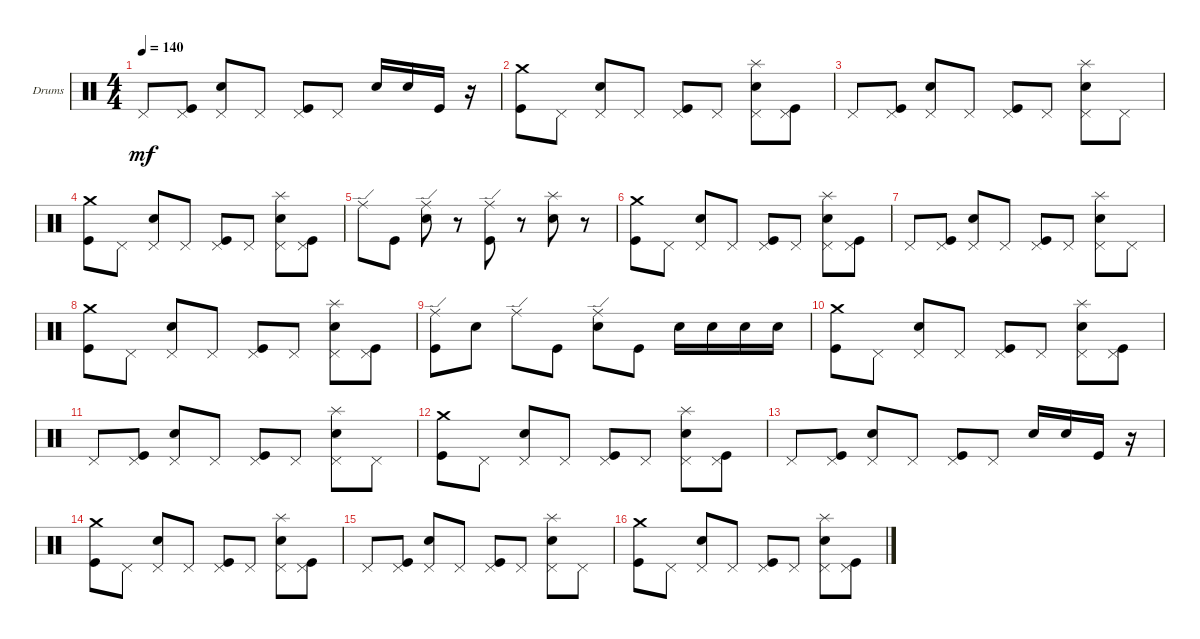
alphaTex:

\bracketExtendMode groupsimilarinstruments
\firstSystemTrackNameOrientation horizontal
\otherSystemsTrackNameOrientation horizontal
\track ("Drumkit" "Drums") {instrument percussion}
\staff {score}
\articulation defaults
\ts (4 4)
\tempo 140
\clef neutral
\scale
0.333333
\ks c "Pedal Hi-Hat (hit)".8{dy mf}
("Kick (hit)" "Pedal Hi-Hat (hit)").8 ("Snare (hit) 2" "Pedal Hi-Hat (hit)").8 "Pedal Hi-Hat (hit)".8 ("Kick (hit)" "Pedal Hi-Hat (hit)").8 "Pedal Hi-Hat (hit)".8 "Snare (hit) 2".16 "Snare (hit) 2".16 "Kick (hit)".16 r.16 |
\scale
0.333333 ("Kick (hit)" "Crash medium (hit)").8 "Pedal Hi-Hat (hit)".8 ("Snare (hit) 2" "Pedal Hi-Hat (hit)").8 "Pedal Hi-Hat (hit)".8 ("Kick (hit)" "Pedal Hi-Hat (hit)").8 "Pedal Hi-Hat (hit)".8 ("Snare (hit) 2" "Pedal Hi-Hat (hit)" "Splash (hit)").8 ("Kick (hit)" "Pedal Hi-Hat (hit)").8 |
\scale
0.333333 "Pedal Hi-Hat (hit)".8 ("Kick (hit)" "Pedal Hi-Hat (hit)").8 ("Snare (hit) 2" "Pedal Hi-Hat (hit)").8 "Pedal Hi-Hat (hit)".8 ("Kick (hit)" "Pedal Hi-Hat (hit)").8 "Pedal Hi-Hat (hit)".8 ("Snare (hit) 2" "Pedal Hi-Hat (hit)" "Splash (hit)").8 "Pedal Hi-Hat (hit)".8 |
\scale
0.333333 ("Kick (hit)" "Crash medium (hit)").8 "Pedal Hi-Hat (hit)".8 ("Snare (hit) 2" "Pedal Hi-Hat (hit)").8 "Pedal Hi-Hat (hit)".8 ("Kick (hit)" "Pedal Hi-Hat (hit)").8 "Pedal Hi-Hat (hit)".8 ("Snare (hit) 2" "Pedal Hi-Hat (hit)" "Splash (hit)").8 ("Kick (hit)" "Pedal Hi-Hat (hit)").8 |
\scale
0.333333 "Ride (edge)".8 "Kick (hit)".8 ("Snare (hit) 2" "Ride (edge)").8 r.8 ("Kick (hit)" "Ride (edge)").8 r.8 ("Snare (hit) 2" "Splash (hit)").8 r.8 |
\scale
0.333333 ("Kick (hit)" "Crash medium (hit)").8 "Pedal Hi-Hat (hit)".8 ("Snare (hit) 2" "Pedal Hi-Hat (hit)").8 "Pedal Hi-Hat (hit)".8 ("Kick (hit)" "Pedal Hi-Hat (hit)").8 "Pedal Hi-Hat (hit)".8 ("Snare (hit) 2" "Pedal Hi-Hat (hit)" "Splash (hit)").8 ("Kick (hit)" "Pedal Hi-Hat (hit)").8 |
\scale
0.333333 "Pedal Hi-Hat (hit)".8 ("Kick (hit)" "Pedal Hi-Hat (hit)").8 ("Snare (hit) 2" "Pedal Hi-Hat (hit)").8 "Pedal Hi-Hat (hit)".8 ("Kick (hit)" "Pedal Hi-Hat (hit)").8 "Pedal Hi-Hat (hit)".8 ("Snare (hit) 2" "Pedal Hi-Hat (hit)" "Splash (hit)").8 "Pedal Hi-Hat (hit)".8 |
\scale
0.333333 ("Kick (hit)" "Crash medium (hit)").8 "Pedal Hi-Hat (hit)".8 ("Snare (hit) 2" "Pedal Hi-Hat (hit)").8 "Pedal Hi-Hat (hit)".8 ("Kick (hit)" "Pedal Hi-Hat (hit)").8 "Pedal Hi-Hat (hit)".8 ("Snare (hit) 2" "Pedal Hi-Hat (hit)" "Splash (hit)").8 ("Kick (hit)" "Pedal Hi-Hat (hit)").8 |
\scale
0.333333 ("Kick (hit)" "Ride (edge)").8 "Snare (hit) 2".8 "Ride (edge)".8 "Kick (hit)".8 ("Snare (hit) 2" "Ride (edge)").8 "Kick (hit)".8 "Snare (hit) 2".16 "Snare (hit) 2".16 "Snare (hit) 2".16 "Snare (hit) 2".16 |
\scale
0.333333 ("Kick (hit)" "Crash medium (hit)").8 "Pedal Hi-Hat (hit)".8 ("Snare (hit) 2" "Pedal Hi-Hat (hit)").8 "Pedal Hi-Hat (hit)".8 ("Kick (hit)" "Pedal Hi-Hat (hit)").8 "Pedal Hi-Hat (hit)".8 ("Snare (hit) 2" "Pedal Hi-Hat (hit)" "Splash (hit)").8 ("Kick (hit)" "Pedal Hi-Hat (hit)").8 |
\scale
0.333333 "Pedal Hi-Hat (hit)".8 ("Kick (hit)" "Pedal Hi-Hat (hit)").8 ("Snare (hit) 2" "Pedal Hi-Hat (hit)").8 "Pedal Hi-Hat (hit)".8 ("Kick (hit)" "Pedal Hi-Hat (hit)").8 "Pedal Hi-Hat (hit)".8 ("Snare (hit) 2" "Pedal Hi-Hat (hit)" "Splash (hit)").8 "Pedal Hi-Hat (hit)".8 |
\scale
0.333333 ("Kick (hit)" "Crash medium (hit)").8 "Pedal Hi-Hat (hit)".8 ("Snare (hit) 2" "Pedal Hi-Hat (hit)").8 "Pedal Hi-Hat (hit)".8 ("Kick (hit)" "Pedal Hi-Hat (hit)").8 "Pedal Hi-Hat (hit)".8 ("Snare (hit) 2" "Pedal Hi-Hat (hit)" "Splash (hit)").8 ("Kick (hit)" "Pedal Hi-Hat (hit)").8 |
\scale
0.333333 "Pedal Hi-Hat (hit)".8 ("Kick (hit)" "Pedal Hi-Hat (hit)").8 ("Snare (hit) 2" "Pedal Hi-Hat (hit)").8 "Pedal Hi-Hat (hit)".8 ("Kick (hit)" "Pedal Hi-Hat (hit)").8 "Pedal Hi-Hat (hit)".8 "Snare (hit) 2".16 "Snare (hit) 2".16 "Kick (hit)".16 r.16 |
\scale
0.333333 ("Kick (hit)" "Crash medium (hit)").8 "Pedal Hi-Hat (hit)".8 ("Snare (hit) 2" "Pedal Hi-Hat (hit)").8 "Pedal Hi-Hat (hit)".8 ("Kick (hit)" "Pedal Hi-Hat (hit)").8 "Pedal Hi-Hat (hit)".8 ("Snare (hit) 2" "Pedal Hi-Hat (hit)" "Splash (hit)").8 ("Kick (hit)" "Pedal Hi-Hat (hit)").8 |
\scale
0.333333 "Pedal Hi-Hat (hit)".8 ("Kick (hit)" "Pedal Hi-Hat (hit)").8 ("Snare (hit) 2" "Pedal Hi-Hat (hit)").8 "Pedal Hi-Hat (hit)".8 ("Kick (hit)" "Pedal Hi-Hat (hit)").8 "Pedal Hi-Hat (hit)".8 ("Snare (hit) 2" "Pedal Hi-Hat (hit)" "Splash (hit)").8 "Pedal Hi-Hat (hit)".8 |
\scale
0.333333 ("Kick (hit)" "Crash medium (hit)").8 "Pedal Hi-Hat (hit)".8 ("Snare (hit) 2" "Pedal Hi-Hat (hit)").8 "Pedal Hi-Hat (hit)".8 ("Kick (hit)" "Pedal Hi-Hat (hit)").8 "Pedal Hi-Hat (hit)".8 ("Snare (hit) 2" "Pedal Hi-Hat (hit)" "Splash (hit)").8 ("Kick (hit)" "Pedal Hi-Hat (hit)").8
